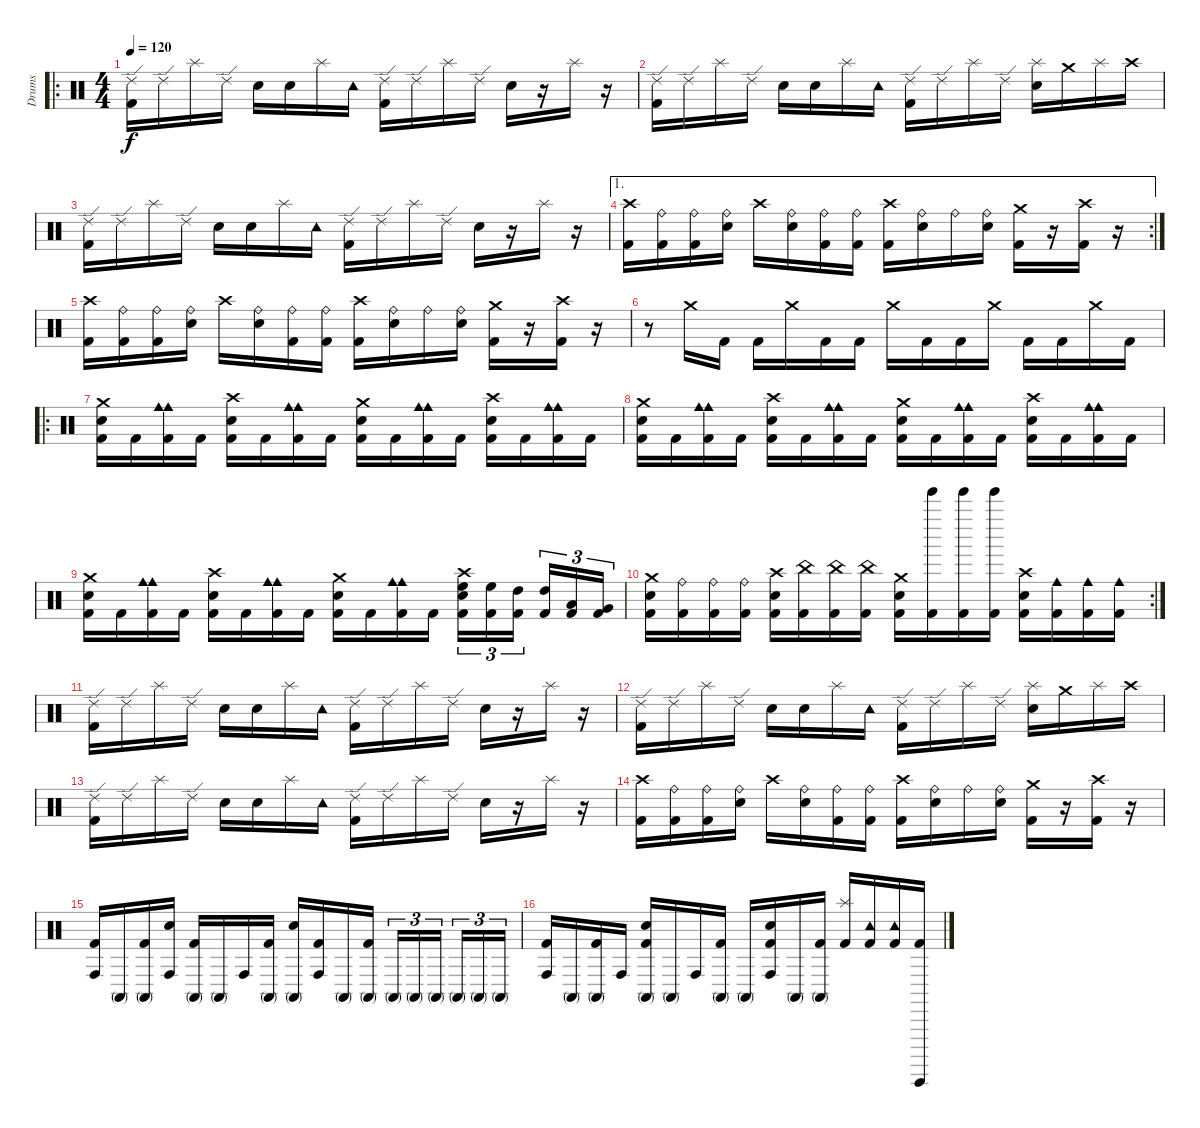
\track ("Drums" "Drums") {instrument percussion}
\staff {score}
\articulation defaults
\ro
\ts (4 4)
\tempo 120
\clef neutral
\ks c
("Ride (edge) 2" "Kick (hit) 2").16{dy f} "Ride (edge) 2".16 "Splash (hit)".16 "Ride (edge) 2".16 "Snare (hit) 2".16 "Snare (hit) 2".16 "Splash (hit)".16 "Tambourine (hit)".16 ("Ride (edge) 2" "Kick (hit) 2").16 "Ride (edge) 2".16 "Splash (hit)".16 "Ride (edge) 2".16 "Snare (hit) 2".16 r.16 "Splash (hit)".16 r.16 |
("Ride (edge) 2" "Kick (hit) 2").16 "Ride (edge) 2".16 "Splash (hit)".16 "Ride (edge) 2".16 "Snare (hit) 2".16 "Snare (hit) 2".16 "Splash (hit)".16 "Tambourine (hit)".16 ("Ride (edge) 2" "Kick (hit) 2").16 "Ride (edge) 2".16 "Splash (hit)".16 "Ride (edge) 2".16 ("Splash (hit)" "Snare (hit) 2").16 "Crash medium (hit)".16 "Splash (hit)".16 "Crash high (hit)".16 |
("Ride (edge) 2" "Kick (hit) 2").16 "Ride (edge) 2".16 "Splash (hit)".16 "Ride (edge) 2".16 "Snare (hit) 2".16 "Snare (hit) 2".16 "Splash (hit)".16 "Tambourine (hit)".16 ("Ride (edge) 2" "Kick (hit) 2").16 "Ride (edge) 2".16 "Splash (hit)".16 "Ride (edge) 2".16 "Snare (hit) 2".16 r.16 "Splash (hit)".16 r.16 |
\ae 1
\rc 2
("Crash high (hit)" "Kick (hit) 2").16 ("Ride (bell)" "Kick (hit) 2").16 ("Ride (bell)" "Kick (hit) 2").16 ("Ride (bell)" "Snare (hit) 2").16 "Crash high (hit)".16 ("Ride (bell)" "Snare (hit) 2").16 ("Ride (bell)" "Kick (hit) 2").16 ("Ride (bell)" "Kick (hit) 2").16 ("Crash high (hit)" "Kick (hit) 2").16 ("Ride (bell)" "Snare (hit) 2").16 "Ride (bell)".16 ("Ride (bell)" "Snare (hit) 2").16 ("Crash medium (hit)" "Kick (hit) 2").16 r.16 ("Crash high (hit)" "Kick (hit) 2").16 r.16 |
("Crash high (hit)" "Kick (hit) 2").16 ("Ride (bell)" "Kick (hit) 2").16 ("Ride (bell)" "Kick (hit) 2").16 ("Ride (bell)" "Snare (hit) 2").16 "Crash high (hit)".16 ("Ride (bell)" "Snare (hit) 2").16 ("Ride (bell)" "Kick (hit) 2").16 ("Ride (bell)" "Kick (hit) 2").16 ("Crash high (hit)" "Kick (hit) 2").16 ("Ride (bell)" "Snare (hit) 2").16 "Ride (bell)".16 ("Ride (bell)" "Snare (hit) 2").16 ("Crash medium (hit)" "Kick (hit) 2").16 r.16 ("Crash high (hit)" "Kick (hit) 2").16 r.16 |
r.8 "Crash medium (hit)".16 "Kick (hit) 2".16 "Kick (hit) 2".16 "Crash medium (hit)".16 "Kick (hit) 2".16 "Kick (hit) 2".16 "Crash medium (hit)".16 "Kick (hit) 2".16 "Kick (hit) 2".16 "Crash medium (hit)".16 "Kick (hit) 2".16 "Kick (hit) 2".16 "Crash medium (hit)".16 "Kick (hit) 2".16 |
\ro
("Crash medium (hit)" "Snare (hit) 2" "Kick (hit) 2").16 "Kick (hit) 2".16 ("Cowbell medium (hit)" "Cowbell medium (hit)" "Kick (hit) 2").16 "Kick (hit) 2".16 ("Crash high (hit)" "Snare (hit) 2" "Kick (hit) 2").16 "Kick (hit) 2".16 ("Cowbell medium (hit)" "Cowbell medium (hit)" "Kick (hit) 2").16 "Kick (hit) 2".16 ("Crash medium (hit)" "Snare (hit) 2" "Kick (hit) 2").16 "Kick (hit) 2".16 ("Cowbell medium (hit)" "Cowbell medium (hit)" "Kick (hit) 2").16 "Kick (hit) 2".16 ("Crash high (hit)" "Snare (hit) 2" "Kick (hit) 2").16 "Kick (hit) 2".16 ("Cowbell medium (hit)" "Cowbell medium (hit)" "Kick (hit) 2").16 "Kick (hit) 2".16 |
("Crash medium (hit)" "Snare (hit) 2" "Kick (hit) 2").16 "Kick (hit) 2".16 ("Cowbell medium (hit)" "Cowbell medium (hit)" "Kick (hit) 2").16 "Kick (hit) 2".16 ("Crash high (hit)" "Snare (hit) 2" "Kick (hit) 2").16 "Kick (hit) 2".16 ("Cowbell medium (hit)" "Cowbell medium (hit)" "Kick (hit) 2").16 "Kick (hit) 2".16 ("Crash medium (hit)" "Snare (hit) 2" "Kick (hit) 2").16 "Kick (hit) 2".16 ("Cowbell medium (hit)" "Cowbell medium (hit)" "Kick (hit) 2").16 "Kick (hit) 2".16 ("Crash high (hit)" "Snare (hit) 2" "Kick (hit) 2").16 "Kick (hit) 2".16 ("Cowbell medium (hit)" "Cowbell medium (hit)" "Kick (hit) 2").16 "Kick (hit) 2".16 |
("Crash medium (hit)" "Snare (hit) 2" "Kick (hit) 2").16 "Kick (hit) 2".16 ("Cowbell medium (hit)" "Cowbell medium (hit)" "Kick (hit) 2").16 "Kick (hit) 2".16 ("Crash high (hit)" "Snare (hit) 2" "Kick (hit) 2").16 "Kick (hit) 2".16 ("Cowbell medium (hit)" "Cowbell medium (hit)" "Kick (hit) 2").16 "Kick (hit) 2".16 ("Crash medium (hit)" "Snare (hit) 2" "Kick (hit) 2").16 "Kick (hit) 2".16 ("Cowbell medium (hit)" "Cowbell medium (hit)" "Kick (hit) 2").16 "Kick (hit) 2".16 ("Crash high (hit)" "High Floor Tom (hit)" "Snare (hit) 2" "Kick (hit) 2").16{tu (3 2)} ("High Floor Tom (hit)" "Kick (hit) 2").16{tu (3 2)} ("High Tom (hit)" "Kick (hit) 2").16{tu (3 2)} ("High Tom (hit)" "Kick (hit) 2").16{tu (3 2)} ("Low Tom (hit)" "Kick (hit) 2").16{tu (3 2)} ("Very Low Tom (hit)" "Kick (hit) 2").16{tu (3 2)} |
\rc 2
("Crash medium (hit)" "Snare (hit) 2" "Kick (hit) 2").16 ("Ride (bell)" "Kick (hit) 2").16 ("Ride (bell)" "Kick (hit) 2").16 ("Ride (bell)" "Kick (hit) 2").16 ("Crash high (hit)" "Snare (hit) 2" "Kick (hit) 2").16 ("China (hit)" "Kick (hit) 2").16 ("China (hit)" "Kick (hit) 2").16 ("China (hit)" "Kick (hit) 2").16 ("Crash medium (hit)" "Snare (hit) 2" "Kick (hit) 2").16 ("Tinkle Bell (hit)" "Kick (hit) 2").16 ("Tinkle Bell (hit)" "Kick (hit) 2").16 ("Tinkle Bell (hit)" "Kick (hit) 2").16 ("Crash high (hit)" "Snare (hit) 2" "Kick (hit) 2").16 ("Cowbell medium (hit)" "Kick (hit) 2").16 ("Cowbell medium (hit)" "Kick (hit) 2").16 ("Cowbell medium (hit)" "Kick (hit) 2").16 |
("Ride (edge) 2" "Kick (hit) 2").16 "Ride (edge) 2".16 "Splash (hit)".16 "Ride (edge) 2".16 "Snare (hit) 2".16 "Snare (hit) 2".16 "Splash (hit)".16 "Tambourine (hit)".16 ("Ride (edge) 2" "Kick (hit) 2").16 "Ride (edge) 2".16 "Splash (hit)".16 "Ride (edge) 2".16 "Snare (hit) 2".16 r.16 "Splash (hit)".16 r.16 |
("Ride (edge) 2" "Kick (hit) 2").16 "Ride (edge) 2".16 "Splash (hit)".16 "Ride (edge) 2".16 "Snare (hit) 2".16 "Snare (hit) 2".16 "Splash (hit)".16 "Tambourine (hit)".16 ("Ride (edge) 2" "Kick (hit) 2").16 "Ride (edge) 2".16 "Splash (hit)".16 "Ride (edge) 2".16 ("Splash (hit)" "Snare (hit) 2").16 "Crash medium (hit)".16 "Splash (hit)".16 "Crash high (hit)".16 |
("Ride (edge) 2" "Kick (hit) 2").16 "Ride (edge) 2".16 "Splash (hit)".16 "Ride (edge) 2".16 "Snare (hit) 2".16 "Snare (hit) 2".16 "Splash (hit)".16 "Tambourine (hit)".16 ("Ride (edge) 2" "Kick (hit) 2").16 "Ride (edge) 2".16 "Splash (hit)".16 "Ride (edge) 2".16 "Snare (hit) 2".16 r.16 "Splash (hit)".16 r.16 |
("Crash high (hit)" "Kick (hit) 2").16 ("Ride (bell)" "Kick (hit) 2").16 ("Ride (bell)" "Kick (hit) 2").16 ("Ride (bell)" "Snare (hit) 2").16 "Crash high (hit)".16 ("Ride (bell)" "Snare (hit) 2").16 ("Ride (bell)" "Kick (hit) 2").16 ("Ride (bell)" "Kick (hit) 2").16 ("Crash high (hit)" "Kick (hit) 2").16 ("Ride (bell)" "Snare (hit) 2").16 "Ride (bell)".16 ("Ride (bell)" "Snare (hit) 2").16 ("Crash medium (hit)" "Kick (hit) 2").16 r.16 ("Crash high (hit)" "Kick (hit) 2").16 r.16 |
("Conga high (hit)" "Kick (hit) 2").16 "Conga high (mute)".16 ("Conga high (mute)" "Kick (hit) 2").16 ("Conga high (hit)" "Snare (hit) 2").16 ("Conga high (mute)" "Kick (hit) 2").16 "Conga high (mute)".16 "Conga high (hit)".16 ("Conga high (mute)" "Kick (hit) 2").16 ("Conga high (mute)" "Snare (hit) 2").16 ("Conga high (hit)" "Kick (hit) 2").16 "Conga high (mute)".16 ("Conga high (mute)" "Kick (hit) 2").16 "Conga high (mute)".16{tu (3 2)} "Conga high (mute)".16{tu (3 2)} "Conga high (mute)".16{tu (3 2)} "Conga high (mute)".16{tu (3 2)} "Conga high (mute)".16{tu (3 2)} "Conga high (mute)".16{tu (3 2)} |
("Conga high (hit)" "Kick (hit) 2").16 "Conga high (mute)".16 ("Conga high (mute)" "Kick (hit) 2").16 "Conga high (hit)".16 ("Conga high (mute)" "Snare (hit) 2" "Kick (hit) 2").16 "Conga high (mute)".16 "Conga high (hit)".16 ("Conga high (mute)" "Kick (hit) 2").16 "Conga high (mute)".16 ("Conga high (hit)" "Snare (hit) 2" "Kick (hit) 2").16 "Conga high (mute)".16 ("Conga high (mute)" "Kick (hit) 2").16 ("Splash (hit)" "Kick (hit) 2").16 ("Tambourine (hit)" "Kick (hit) 2").16 ("Tambourine (hit)" "Kick (hit) 2").16 ("Guiro (hit)" "Kick (hit) 2").16
